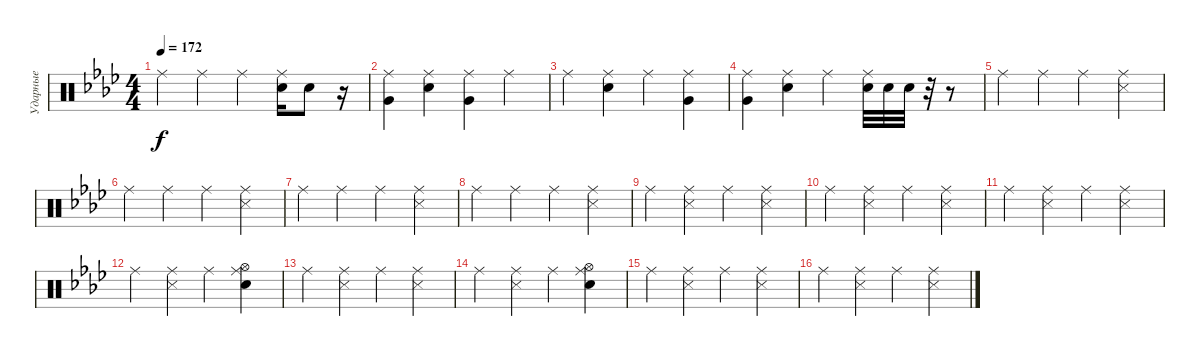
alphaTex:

\track ("Ударные" "Ударные") {instrument percussion}
\staff {score}
\articulation defaults
\ts (4 4)
\tempo 172
\clef neutral
\ks ab "Ride (middle)".4{dy f} "Ride (middle)".4 "Ride (middle)".4
("Ride (middle)" "Electric Snare (hit)").16 "Electric Snare (hit)".8 r.16 |
("Ride (middle)" "Very Low Tom (hit)").4 ("Ride (middle)" "Electric Snare (hit)").4 ("Ride (middle)" "Very Low Tom (hit)").4 "Ride (middle)".4 |
"Ride (middle)".4 ("Ride (middle)" "Electric Snare (hit)").4 "Ride (middle)".4 ("Ride (middle)" "Very Low Tom (hit)").4 |
("Ride (middle)" "Very Low Tom (hit)").4 ("Ride (middle)" "Electric Snare (hit)").4 "Ride (middle)".4 ("Ride (middle)" "Electric Snare (hit)").32 "Electric Snare (hit)".32 "Electric Snare (hit)".32 r.32 r.8 |
"Ride (middle)".4 "Ride (middle)".4 "Ride (middle)".4 ("Ride (middle)" "Snare (side stick) 3").4 |
"Ride (middle)".4 "Ride (middle)".4 "Ride (middle)".4 ("Ride (middle)" "Snare (side stick) 3").4 |
"Ride (middle)".4 "Ride (middle)".4 "Ride (middle)".4 ("Ride (middle)" "Snare (side stick) 3").4 |
"Ride (middle)".4 "Ride (middle)".4 "Ride (middle)".4 ("Ride (middle)" "Snare (side stick) 3").4 |
"Ride (middle)".4 ("Ride (middle)" "Snare (side stick) 3").4 "Ride (middle)".4 ("Ride (middle)" "Snare (side stick) 3").4 |
"Ride (middle)".4 ("Ride (middle)" "Snare (side stick) 3").4 "Ride (middle)".4 ("Ride (middle)" "Snare (side stick) 3").4 |
"Ride (middle)".4 ("Ride (middle)" "Snare (side stick) 3").4 "Ride (middle)".4 ("Ride (middle)" "Snare (side stick) 3").4 |
"Ride (middle)".4 ("Ride (middle)" "Snare (side stick) 3").4 "Ride (middle)".4 ("Ride (middle)" "Hi-Hat (open)" "Electric Snare (hit)").4 |
"Ride (middle)".4 ("Ride (middle)" "Snare (side stick) 3").4 "Ride (middle)".4 ("Ride (middle)" "Snare (side stick) 3").4 |
"Ride (middle)".4 ("Ride (middle)" "Snare (side stick) 3").4 "Ride (middle)".4 ("Ride (middle)" "Hi-Hat (open)" "Electric Snare (hit)").4 |
"Ride (middle)".4 ("Ride (middle)" "Snare (side stick) 3").4 "Ride (middle)".4 ("Ride (middle)" "Snare (side stick) 3").4 |
"Ride (middle)".4 ("Ride (middle)" "Snare (side stick) 3").4 "Ride (middle)".4 ("Ride (middle)" "Snare (side stick) 3").4
